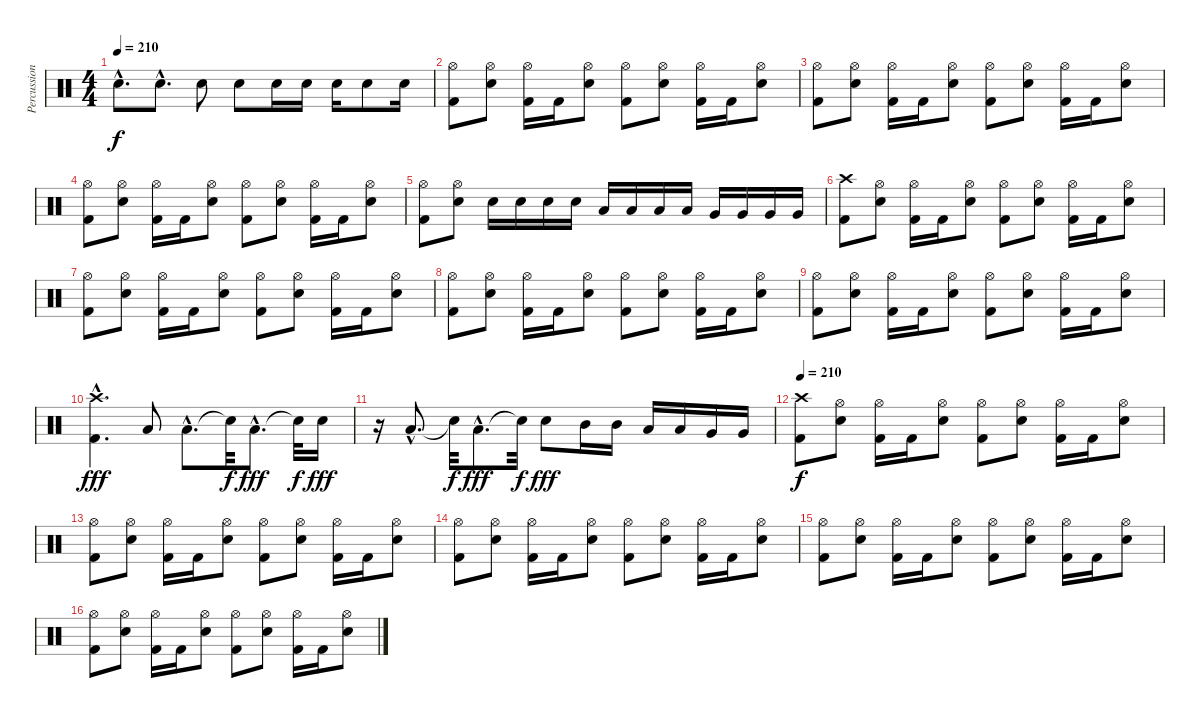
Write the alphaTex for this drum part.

\track ("Percussions" "Percussion") {instrument percussion}
\staff {score}
\articulation defaults
\ts (4 4)
\tempo 210
\clef neutral
\ks c "Snare (hit) 2"{hac}.8{d dy f} "Snare (hit) 2"{hac}.8{d} "Snare (hit) 2".8 "Snare (hit) 2".8 "Snare (hit) 2".16 "Snare (hit) 2".16 "Snare (hit) 2".16 "Snare (hit) 2".8 "Snare (hit) 2".16
|
("Hi-Hat (open)" "Kick (hit) 2").8 ("Hi-Hat (open)" "Snare (hit) 2").8 ("Hi-Hat (open)" "Kick (hit) 2").16 "Kick (hit) 2".16 ("Hi-Hat (open)" "Snare (hit) 2").8 ("Hi-Hat (open)" "Kick (hit) 2").8 ("Hi-Hat (open)" "Snare (hit) 2").8 ("Hi-Hat (open)" "Kick (hit) 2").16 "Kick (hit) 2".16 ("Hi-Hat (open)" "Snare (hit) 2").8 |
("Hi-Hat (open)" "Kick (hit) 2").8 ("Hi-Hat (open)" "Snare (hit) 2").8 ("Hi-Hat (open)" "Kick (hit) 2").16 "Kick (hit) 2".16 ("Hi-Hat (open)" "Snare (hit) 2").8 ("Hi-Hat (open)" "Kick (hit) 2").8 ("Hi-Hat (open)" "Snare (hit) 2").8 ("Hi-Hat (open)" "Kick (hit) 2").16 "Kick (hit) 2".16 ("Hi-Hat (open)" "Snare (hit) 2").8 |
("Hi-Hat (open)" "Kick (hit) 2").8 ("Hi-Hat (open)" "Snare (hit) 2").8 ("Hi-Hat (open)" "Kick (hit) 2").16 "Kick (hit) 2".16 ("Hi-Hat (open)" "Snare (hit) 2").8 ("Hi-Hat (open)" "Kick (hit) 2").8 ("Hi-Hat (open)" "Snare (hit) 2").8 ("Hi-Hat (open)" "Kick (hit) 2").16 "Kick (hit) 2".16 ("Hi-Hat (open)" "Snare (hit) 2").8 |
("Hi-Hat (open)" "Kick (hit) 2").8 ("Hi-Hat (open)" "Snare (hit) 2").8 "Snare (hit) 2".16 "Snare (hit) 2".16 "Snare (hit) 2".16 "Snare (hit) 2".16 "Low Tom (hit)".16 "Low Tom (hit)".16 "Low Tom (hit)".16 "Low Tom (hit)".16 "Very Low Tom (hit)".16 "Very Low Tom (hit)".16 "Very Low Tom (hit)".16 "Very Low Tom (hit)".16 |
("Crash high (hit)" "Kick (hit) 2").8 ("Hi-Hat (open)" "Snare (hit) 2").8 ("Hi-Hat (open)" "Kick (hit) 2").16 "Kick (hit) 2".16 ("Hi-Hat (open)" "Snare (hit) 2").8 ("Hi-Hat (open)" "Kick (hit) 2").8 ("Hi-Hat (open)" "Snare (hit) 2").8 ("Hi-Hat (open)" "Kick (hit) 2").16 "Kick (hit) 2".16 ("Hi-Hat (open)" "Snare (hit) 2").8 |
("Hi-Hat (open)" "Kick (hit) 2").8 ("Hi-Hat (open)" "Snare (hit) 2").8 ("Hi-Hat (open)" "Kick (hit) 2").16 "Kick (hit) 2".16 ("Hi-Hat (open)" "Snare (hit) 2").8 ("Hi-Hat (open)" "Kick (hit) 2").8 ("Hi-Hat (open)" "Snare (hit) 2").8 ("Hi-Hat (open)" "Kick (hit) 2").16 "Kick (hit) 2".16 ("Hi-Hat (open)" "Snare (hit) 2").8 |
("Hi-Hat (open)" "Kick (hit) 2").8 ("Hi-Hat (open)" "Snare (hit) 2").8 ("Hi-Hat (open)" "Kick (hit) 2").16 "Kick (hit) 2".16 ("Hi-Hat (open)" "Snare (hit) 2").8 ("Hi-Hat (open)" "Kick (hit) 2").8 ("Hi-Hat (open)" "Snare (hit) 2").8 ("Hi-Hat (open)" "Kick (hit) 2").16 "Kick (hit) 2".16 ("Hi-Hat (open)" "Snare (hit) 2").8 |
("Hi-Hat (open)" "Kick (hit) 2").8 ("Hi-Hat (open)" "Snare (hit) 2").8 ("Hi-Hat (open)" "Kick (hit) 2").16 "Kick (hit) 2".16 ("Hi-Hat (open)" "Snare (hit) 2").8 ("Hi-Hat (open)" "Kick (hit) 2").8 ("Hi-Hat (open)" "Snare (hit) 2").8 ("Hi-Hat (open)" "Kick (hit) 2").16 "Kick (hit) 2".16 ("Hi-Hat (open)" "Snare (hit) 2").8 |
("Crash high (hit)"{hac} "Kick (hit) 2"{hac}).4{d dy fff} "Low Tom (hit)".8 "Low Tom (hit)"{hac}.8{d} "Snare (hit)"{t}.32{dy f} "Low Tom (hit)"{hac}.8{d dy fff} "Snare (hit)"{t}.32{dy f} "Snare (hit) 2".16{dy fff} |
r.16 "Low Tom (hit)"{hac}.8{d} "Snare (hit)"{t}.32{dy f} "Low Tom (hit)"{hac}.8{d dy fff} "Snare (hit)"{t}.32{dy f} "Snare (hit) 2".8{dy fff} "Mid Tom (hit)".16 "Mid Tom (hit)".16 "Low Tom (hit)".16 "Low Tom (hit)".16 "Very Low Tom (hit)".16 "Very Low Tom (hit)".16 |
\tempo 210
("Crash high (hit)" "Kick (hit) 2").8{dy f} ("Hi-Hat (open)" "Snare (hit) 2").8 ("Hi-Hat (open)" "Kick (hit) 2").16 "Kick (hit) 2".16 ("Hi-Hat (open)" "Snare (hit) 2").8 ("Hi-Hat (open)" "Kick (hit) 2").8 ("Hi-Hat (open)" "Snare (hit) 2").8 ("Hi-Hat (open)" "Kick (hit) 2").16 "Kick (hit) 2".16 ("Hi-Hat (open)" "Snare (hit) 2").8 |
("Hi-Hat (open)" "Kick (hit) 2").8 ("Hi-Hat (open)" "Snare (hit) 2").8 ("Hi-Hat (open)" "Kick (hit) 2").16 "Kick (hit) 2".16 ("Hi-Hat (open)" "Snare (hit) 2").8 ("Hi-Hat (open)" "Kick (hit) 2").8 ("Hi-Hat (open)" "Snare (hit) 2").8 ("Hi-Hat (open)" "Kick (hit) 2").16 "Kick (hit) 2".16 ("Hi-Hat (open)" "Snare (hit) 2").8 |
("Hi-Hat (open)" "Kick (hit) 2").8 ("Hi-Hat (open)" "Snare (hit) 2").8 ("Hi-Hat (open)" "Kick (hit) 2").16 "Kick (hit) 2".16 ("Hi-Hat (open)" "Snare (hit) 2").8 ("Hi-Hat (open)" "Kick (hit) 2").8 ("Hi-Hat (open)" "Snare (hit) 2").8 ("Hi-Hat (open)" "Kick (hit) 2").16 "Kick (hit) 2".16 ("Hi-Hat (open)" "Snare (hit) 2").8 |
("Hi-Hat (open)" "Kick (hit) 2").8 ("Hi-Hat (open)" "Snare (hit) 2").8 ("Hi-Hat (open)" "Kick (hit) 2").16 "Kick (hit) 2".16 ("Hi-Hat (open)" "Snare (hit) 2").8 ("Hi-Hat (open)" "Kick (hit) 2").8 ("Hi-Hat (open)" "Snare (hit) 2").8 ("Hi-Hat (open)" "Kick (hit) 2").16 "Kick (hit) 2".16 ("Hi-Hat (open)" "Snare (hit) 2").8 |
("Hi-Hat (open)" "Kick (hit) 2").8 ("Hi-Hat (open)" "Snare (hit) 2").8 ("Hi-Hat (open)" "Kick (hit) 2").16 "Kick (hit) 2".16 ("Hi-Hat (open)" "Snare (hit) 2").8 ("Hi-Hat (open)" "Kick (hit) 2").8 ("Hi-Hat (open)" "Snare (hit) 2").8 ("Hi-Hat (open)" "Kick (hit) 2").16 "Kick (hit) 2".16 ("Hi-Hat (open)" "Snare (hit) 2").8
